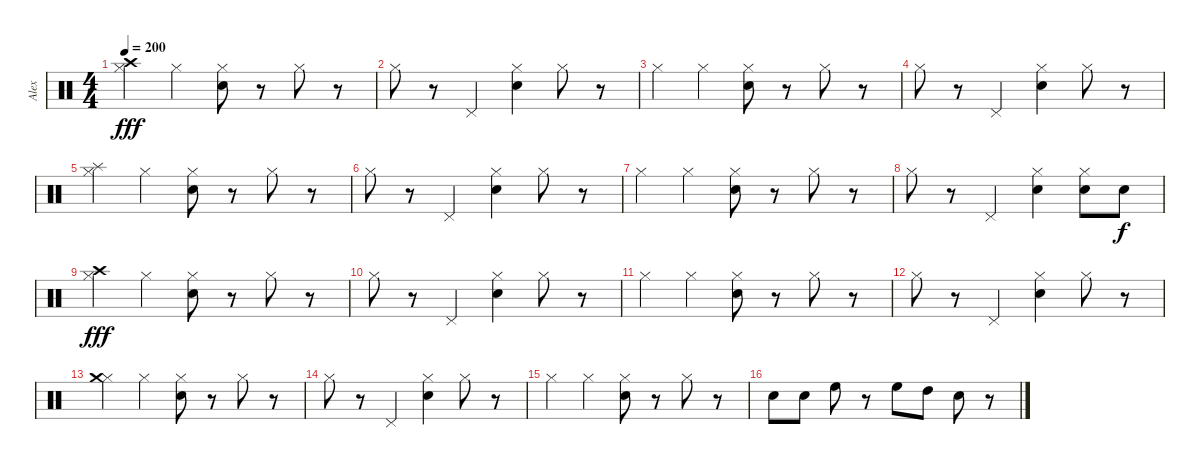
\track ("Alex" "Alex") {instrument percussion}
\staff {score}
\articulation defaults
\ts (4 4)
\tempo 200
\clef neutral
\ks c
("Crash high (hit)" "Hi-Hat (closed)").4{dy fff} "Hi-Hat (closed)".4 ("Electric Snare (hit)" "Hi-Hat (closed)").8 r.8 "Hi-Hat (closed)".8 r.8 |
"Hi-Hat (closed)".8 r.8 "Pedal Hi-Hat (hit)".4 ("Electric Snare (hit)" "Hi-Hat (closed)").4 "Hi-Hat (closed)".8 r.8 |
"Hi-Hat (closed)".4 "Hi-Hat (closed)".4 ("Electric Snare (hit)" "Hi-Hat (closed)").8 r.8 "Hi-Hat (closed)".8 r.8 |
"Hi-Hat (closed)".8 r.8 "Pedal Hi-Hat (hit)".4 ("Electric Snare (hit)" "Hi-Hat (closed)").4 "Hi-Hat (closed)".8 r.8 |
("Hi-Hat (closed)" "Splash (hit)").4 "Hi-Hat (closed)".4 ("Electric Snare (hit)" "Hi-Hat (closed)").8 r.8 "Hi-Hat (closed)".8 r.8 |
"Hi-Hat (closed)".8 r.8 "Pedal Hi-Hat (hit)".4 ("Electric Snare (hit)" "Hi-Hat (closed)").4 "Hi-Hat (closed)".8 r.8 |
"Hi-Hat (closed)".4 "Hi-Hat (closed)".4 ("Electric Snare (hit)" "Hi-Hat (closed)").8 r.8 "Hi-Hat (closed)".8 r.8 |
"Hi-Hat (closed)".8 r.8 "Pedal Hi-Hat (hit)".4 ("Electric Snare (hit)" "Hi-Hat (closed)").4 ("Electric Snare (hit)" "Hi-Hat (closed)").8 "Electric Snare (hit)".8{dy f} |
("Hi-Hat (closed)" "Crash high (hit)").4{dy fff} "Hi-Hat (closed)".4 ("Electric Snare (hit)" "Hi-Hat (closed)").8 r.8 "Hi-Hat (closed)".8 r.8 |
"Hi-Hat (closed)".8 r.8 "Pedal Hi-Hat (hit)".4 ("Electric Snare (hit)" "Hi-Hat (closed)").4 "Hi-Hat (closed)".8 r.8 |
"Hi-Hat (closed)".4 "Hi-Hat (closed)".4 ("Electric Snare (hit)" "Hi-Hat (closed)").8 r.8 "Hi-Hat (closed)".8 r.8 |
"Hi-Hat (closed)".8 r.8 "Pedal Hi-Hat (hit)".4 ("Electric Snare (hit)" "Hi-Hat (closed)").4 "Hi-Hat (closed)".8 r.8 |
("Hi-Hat (closed)" "Crash medium (hit)").4 "Hi-Hat (closed)".4 ("Electric Snare (hit)" "Hi-Hat (closed)").8 r.8 "Hi-Hat (closed)".8 r.8 |
"Hi-Hat (closed)".8 r.8 "Pedal Hi-Hat (hit)".4 ("Electric Snare (hit)" "Hi-Hat (closed)").4 "Hi-Hat (closed)".8 r.8 |
"Hi-Hat (closed)".4 "Hi-Hat (closed)".4 ("Electric Snare (hit)" "Hi-Hat (closed)").8 r.8 "Hi-Hat (closed)".8 r.8 |
"Electric Snare (hit)".8 "Electric Snare (hit)".8 "High Floor Tom (hit)".8 r.8 "High Floor Tom (hit)".8 "High Tom (hit)".8 "Snare (hit) 2".8 r.8
